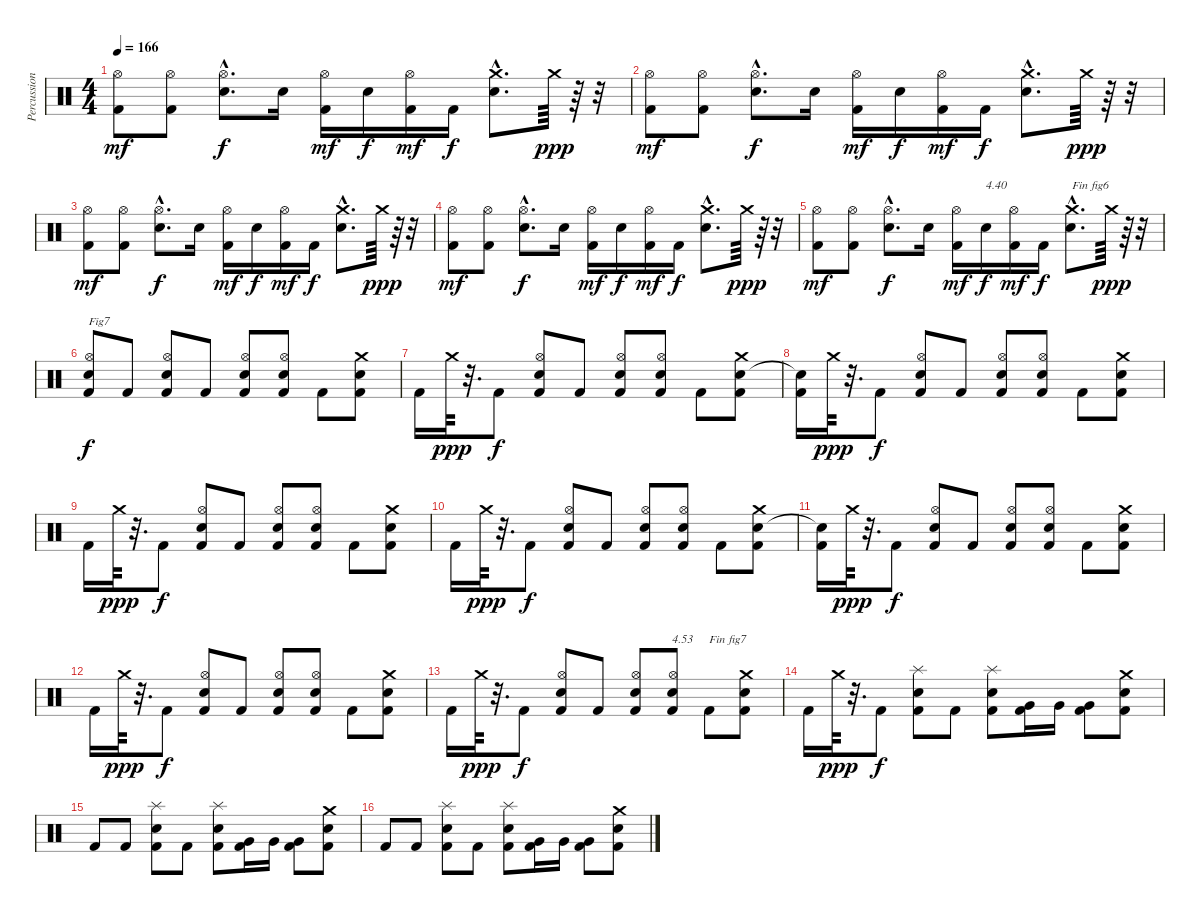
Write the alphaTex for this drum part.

\track ("Percussions" "Percussion") {instrument percussion}
\staff {score}
\articulation defaults
\ts (4 4)
\tempo 166
\clef neutral
\ks c
("Kick (hit) 2" "Hi-Hat (open)").8{dy mf} ("Kick (hit) 2" "Hi-Hat (open)").8 ("Electric Snare (hit)"{hac} "Hi-Hat (open)"{hac}).8{d dy f} "Electric Snare (hit)".16 ("Kick (hit) 2" "Hi-Hat (open)").16{dy mf} "Electric Snare (hit)".16{dy f} ("Kick (hit) 2" "Hi-Hat (open)").16{dy mf} "Kick (hit) 2".16{dy f} ("Electric Snare (hit)"{hac} "Crash medium (hit)"{hac}).8{d} "Crash medium (hit)".64{dy ppp} r.64 r.32 |
("Kick (hit) 2" "Hi-Hat (open)").8{dy mf} ("Kick (hit) 2" "Hi-Hat (open)").8 ("Electric Snare (hit)"{hac} "Hi-Hat (open)"{hac}).8{d dy f} "Electric Snare (hit)".16 ("Kick (hit) 2" "Hi-Hat (open)").16{dy mf} "Electric Snare (hit)".16{dy f} ("Kick (hit) 2" "Hi-Hat (open)").16{dy mf} "Kick (hit) 2".16{dy f} ("Electric Snare (hit)"{hac} "Crash medium (hit)"{hac}).8{d} "Crash medium (hit)".64{dy ppp} r.64 r.32 |
("Kick (hit) 2" "Hi-Hat (open)").8{dy mf} ("Kick (hit) 2" "Hi-Hat (open)").8 ("Electric Snare (hit)"{hac} "Hi-Hat (open)"{hac}).8{d dy f} "Electric Snare (hit)".16 ("Kick (hit) 2" "Hi-Hat (open)").16{dy mf} "Electric Snare (hit)".16{dy f} ("Kick (hit) 2" "Hi-Hat (open)").16{dy mf} "Kick (hit) 2".16{dy f} ("Electric Snare (hit)"{hac} "Crash medium (hit)"{hac}).8{d} "Crash medium (hit)".64{dy ppp} r.64 r.32 |
("Kick (hit) 2" "Hi-Hat (open)").8{dy mf} ("Kick (hit) 2" "Hi-Hat (open)").8 ("Electric Snare (hit)"{hac} "Hi-Hat (open)"{hac}).8{d dy f} "Electric Snare (hit)".16 ("Kick (hit) 2" "Hi-Hat (open)").16{dy mf} "Electric Snare (hit)".16{dy f} ("Kick (hit) 2" "Hi-Hat (open)").16{dy mf} "Kick (hit) 2".16{dy f} ("Electric Snare (hit)"{hac} "Crash medium (hit)"{hac}).8{d} "Crash medium (hit)".64{dy ppp} r.64 r.32 |
("Kick (hit) 2" "Hi-Hat (open)").8{dy mf} ("Kick (hit) 2" "Hi-Hat (open)").8 ("Electric Snare (hit)"{hac} "Hi-Hat (open)"{hac}).8{d dy f} "Electric Snare (hit)".16 ("Kick (hit) 2" "Hi-Hat (open)").16{dy mf} "Electric Snare (hit)".16{txt "4.40" dy f} ("Kick (hit) 2" "Hi-Hat (open)").16{dy mf} "Kick (hit) 2".16{dy f} ("Electric Snare (hit)"{hac} "Crash medium (hit)"{hac}).8{d txt "Fin fig6"} "Crash medium (hit)".64{dy ppp} r.64 r.32 |
("Kick (hit) 2" "Electric Snare (hit)" "Hi-Hat (open)").8{txt "Fig7" dy f} "Kick (hit) 2".8 ("Kick (hit) 2" "Electric Snare (hit)" "Hi-Hat (open)").8 "Kick (hit) 2".8 ("Kick (hit) 2" "Electric Snare (hit)" "Hi-Hat (open)").8 ("Kick (hit) 2" "Electric Snare (hit)" "Hi-Hat (open)").8 "Kick (hit) 2".8 ("Kick (hit) 2" "Electric Snare (hit)" "Crash medium (hit)").8 |
"Kick (hit) 2".16 "Crash medium (hit)".64{dy ppp} r.32{d} "Kick (hit) 2".8{dy f} ("Kick (hit) 2" "Electric Snare (hit)" "Hi-Hat (open)").8 "Kick (hit) 2".8 ("Kick (hit) 2" "Electric Snare (hit)" "Hi-Hat (open)").8 ("Kick (hit) 2" "Electric Snare (hit)" "Hi-Hat (open)").8 "Kick (hit) 2".8 ("Kick (hit) 2" "Electric Snare (hit)" "Crash medium (hit)").8 |
("Kick (hit) 2" "Snare (hit)"{t}).16 "Crash medium (hit)".64{dy ppp} r.32{d} "Kick (hit) 2".8{dy f} ("Kick (hit) 2" "Electric Snare (hit)" "Hi-Hat (open)").8 "Kick (hit) 2".8 ("Kick (hit) 2" "Electric Snare (hit)" "Hi-Hat (open)").8 ("Kick (hit) 2" "Electric Snare (hit)" "Hi-Hat (open)").8 "Kick (hit) 2".8 ("Kick (hit) 2" "Electric Snare (hit)" "Crash medium (hit)").8 |
"Kick (hit) 2".16 "Crash medium (hit)".64{dy ppp} r.32{d} "Kick (hit) 2".8{dy f} ("Kick (hit) 2" "Electric Snare (hit)" "Hi-Hat (open)").8 "Kick (hit) 2".8 ("Kick (hit) 2" "Electric Snare (hit)" "Hi-Hat (open)").8 ("Kick (hit) 2" "Electric Snare (hit)" "Hi-Hat (open)").8 "Kick (hit) 2".8 ("Kick (hit) 2" "Electric Snare (hit)" "Crash medium (hit)").8 |
"Kick (hit) 2".16 "Crash medium (hit)".64{dy ppp} r.32{d} "Kick (hit) 2".8{dy f} ("Kick (hit) 2" "Electric Snare (hit)" "Hi-Hat (open)").8 "Kick (hit) 2".8 ("Kick (hit) 2" "Electric Snare (hit)" "Hi-Hat (open)").8 ("Kick (hit) 2" "Electric Snare (hit)" "Hi-Hat (open)").8 "Kick (hit) 2".8 ("Kick (hit) 2" "Electric Snare (hit)" "Crash medium (hit)").8 |
("Kick (hit) 2" "Snare (hit)"{t}).16 "Crash medium (hit)".64{dy ppp} r.32{d} "Kick (hit) 2".8{dy f} ("Kick (hit) 2" "Electric Snare (hit)" "Hi-Hat (open)").8 "Kick (hit) 2".8 ("Kick (hit) 2" "Electric Snare (hit)" "Hi-Hat (open)").8 ("Kick (hit) 2" "Electric Snare (hit)" "Hi-Hat (open)").8 "Kick (hit) 2".8 ("Kick (hit) 2" "Electric Snare (hit)" "Crash medium (hit)").8 |
"Kick (hit) 2".16 "Crash medium (hit)".64{dy ppp} r.32{d} "Kick (hit) 2".8{dy f} ("Kick (hit) 2" "Electric Snare (hit)" "Hi-Hat (open)").8 "Kick (hit) 2".8 ("Kick (hit) 2" "Electric Snare (hit)" "Hi-Hat (open)").8 ("Kick (hit) 2" "Electric Snare (hit)" "Hi-Hat (open)").8 "Kick (hit) 2".8 ("Kick (hit) 2" "Electric Snare (hit)" "Crash medium (hit)").8 |
"Kick (hit) 2".16 "Crash medium (hit)".64{dy ppp} r.32{d} "Kick (hit) 2".8{dy f} ("Kick (hit) 2" "Electric Snare (hit)" "Hi-Hat (open)").8 "Kick (hit) 2".8 ("Kick (hit) 2" "Electric Snare (hit)" "Hi-Hat (open)").8 ("Kick (hit) 2" "Electric Snare (hit)" "Hi-Hat (open)").8{txt "4.53"} "Kick (hit) 2".8{txt "Fin fig7"} ("Kick (hit) 2" "Electric Snare (hit)" "Crash medium (hit)").8 |
"Kick (hit) 2".16 "Crash medium (hit)".64{dy ppp} r.32{d} "Kick (hit) 2".8{dy f} ("Kick (hit) 2" "Electric Snare (hit)" "Splash (hit)").8 "Kick (hit) 2".8 ("Kick (hit) 2" "Electric Snare (hit)" "Splash (hit)").8 ("Kick (hit) 2" "Very Low Tom (hit)").16 "Very Low Tom (hit)".16 ("Kick (hit) 2" "Very Low Tom (hit)").8 ("Kick (hit) 2" "Electric Snare (hit)" "Crash medium (hit)").8 |
"Kick (hit) 2".8 "Kick (hit) 2".8 ("Kick (hit) 2" "Electric Snare (hit)" "Splash (hit)").8 "Kick (hit) 2".8 ("Kick (hit) 2" "Electric Snare (hit)" "Splash (hit)").8 ("Kick (hit) 2" "Very Low Tom (hit)").16 "Very Low Tom (hit)".16 ("Kick (hit) 2" "Very Low Tom (hit)").8 ("Kick (hit) 2" "Electric Snare (hit)" "Crash medium (hit)").8 |
"Kick (hit) 2".8 "Kick (hit) 2".8 ("Kick (hit) 2" "Electric Snare (hit)" "Splash (hit)").8 "Kick (hit) 2".8 ("Kick (hit) 2" "Electric Snare (hit)" "Splash (hit)").8 ("Kick (hit) 2" "Very Low Tom (hit)").16 "Very Low Tom (hit)".16 ("Kick (hit) 2" "Very Low Tom (hit)").8 ("Kick (hit) 2" "Electric Snare (hit)" "Crash medium (hit)").8
